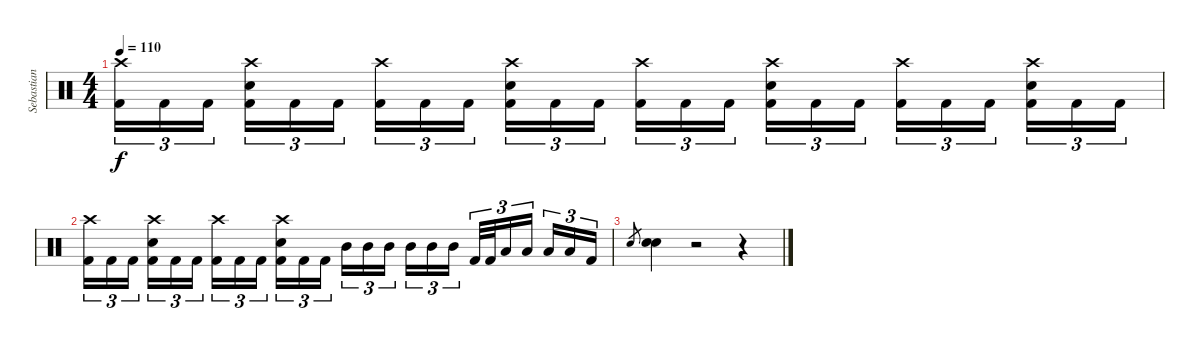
\track ("Sebastian H." "Sebastian ") {instrument percussion}
\staff {score}
\articulation defaults
\ts (4 4)
\tempo 110
\clef neutral
\ks c
("Crash high (hit)" "Kick (hit) 2").16{tu (3 2) dy f} "Kick (hit) 2".16{tu (3 2)} "Kick (hit) 2".16{tu (3 2)} ("Crash high (hit)" "Electric Snare (hit)" "Kick (hit) 2").16{tu (3 2)} "Kick (hit) 2".16{tu (3 2)} "Kick (hit) 2".16{tu (3 2)} ("Crash high (hit)" "Kick (hit) 2").16{tu (3 2)} "Kick (hit) 2".16{tu (3 2)} "Kick (hit) 2".16{tu (3 2)} ("Electric Snare (hit)" "Crash high (hit)" "Kick (hit) 2").16{tu (3 2)} "Kick (hit) 2".16{tu (3 2)} "Kick (hit) 2".16{tu (3 2)} ("Crash high (hit)" "Kick (hit) 2").16{tu (3 2)} "Kick (hit) 2".16{tu (3 2)} "Kick (hit) 2".16{tu (3 2)} ("Electric Snare (hit)" "Crash high (hit)" "Kick (hit) 2").16{tu (3 2)} "Kick (hit) 2".16{tu (3 2)} "Kick (hit) 2".16{tu (3 2)} ("Crash high (hit)" "Kick (hit) 2").16{tu (3 2)} "Kick (hit) 2".16{tu (3 2)} "Kick (hit) 2".16{tu (3 2)} ("Electric Snare (hit)" "Crash high (hit)" "Kick (hit) 2").16{tu (3 2)} "Kick (hit) 2".16{tu (3 2)} "Kick (hit) 2".16{tu (3 2)} |
("Crash high (hit)" "Kick (hit) 2").16{tu (3 2)} "Kick (hit) 2".16{tu (3 2)} "Kick (hit) 2".16{tu (3 2)} ("Crash high (hit)" "Electric Snare (hit)" "Kick (hit) 2").16{tu (3 2)} "Kick (hit) 2".16{tu (3 2)} "Kick (hit) 2".16{tu (3 2)} ("Crash high (hit)" "Kick (hit) 2").16{tu (3 2)} "Kick (hit) 2".16{tu (3 2)} "Kick (hit) 2".16{tu (3 2)} ("Electric Snare (hit)" "Crash high (hit)" "Kick (hit) 2").16{tu (3 2)} "Kick (hit) 2".16{tu (3 2)} "Kick (hit) 2".16{tu (3 2)} "Mid Tom (hit)".16{tu (3 2)} "Mid Tom (hit)".16{tu (3 2)} "Mid Tom (hit)".16{tu (3 2)} "Mid Tom (hit)".16{tu (3 2)} "Mid Tom (hit)".16{tu (3 2)} "Mid Tom (hit)".16{tu (3 2)} "Kick (hit) 2".32{tu (3 2)} "Kick (hit) 2".32{tu (3 2)} "Low Tom (hit)".16{tu (3 2)} "Low Tom (hit)".16{tu (3 2)} "Low Tom (hit)".16{tu (3 2)} "Low Tom (hit)".16{tu (3 2)} "Kick (hit) 2".16{tu (3 2)} |
"Electric Snare (hit)".8{gr} ("Electric Snare (hit)" "Electric Snare (hit)").4 r.2 r.4
